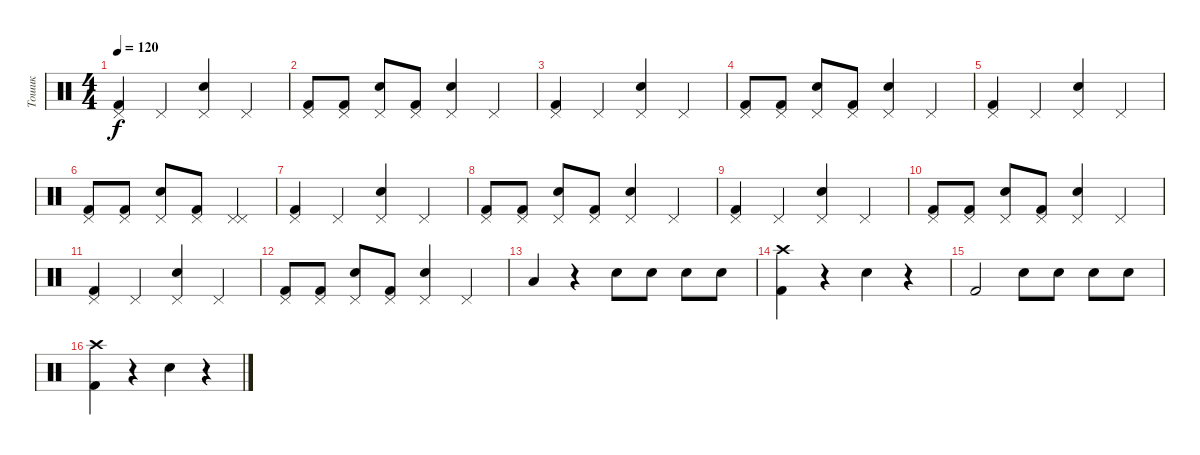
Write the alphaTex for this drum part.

\track ("Тошик" "Тошик") {instrument percussion}
\staff {score}
\articulation defaults
\ts (4 4)
\tempo 120
\clef neutral
\ks c
("Kick (hit) 2" "Pedal Hi-Hat (hit)").4{dy f} "Pedal Hi-Hat (hit)".4 ("Electric Snare (hit)" "Pedal Hi-Hat (hit)").4 "Pedal Hi-Hat (hit)".4 |
("Kick (hit) 2" "Pedal Hi-Hat (hit)").8 ("Kick (hit) 2" "Pedal Hi-Hat (hit)").8 ("Snare (hit) 2" "Pedal Hi-Hat (hit)").8 ("Kick (hit) 2" "Pedal Hi-Hat (hit)").8 ("Electric Snare (hit)" "Pedal Hi-Hat (hit)").4 "Pedal Hi-Hat (hit)".4 |
("Kick (hit) 2" "Pedal Hi-Hat (hit)").4 "Pedal Hi-Hat (hit)".4 ("Electric Snare (hit)" "Pedal Hi-Hat (hit)").4 "Pedal Hi-Hat (hit)".4 |
("Kick (hit) 2" "Pedal Hi-Hat (hit)").8 ("Kick (hit) 2" "Pedal Hi-Hat (hit)").8 ("Snare (hit) 2" "Pedal Hi-Hat (hit)").8 ("Kick (hit) 2" "Pedal Hi-Hat (hit)").8 ("Electric Snare (hit)" "Pedal Hi-Hat (hit)").4 "Pedal Hi-Hat (hit)".4 |
("Kick (hit) 2" "Pedal Hi-Hat (hit)").4 "Pedal Hi-Hat (hit)".4 ("Electric Snare (hit)" "Pedal Hi-Hat (hit)").4 "Pedal Hi-Hat (hit)".4 |
("Kick (hit) 2" "Pedal Hi-Hat (hit)").8 ("Kick (hit) 2" "Pedal Hi-Hat (hit)").8 ("Snare (hit) 2" "Pedal Hi-Hat (hit)").8 ("Kick (hit) 2" "Pedal Hi-Hat (hit)").8 ("Pedal Hi-Hat (hit)" "Pedal Hi-Hat (hit)").4 |
("Kick (hit) 2" "Pedal Hi-Hat (hit)").4 "Pedal Hi-Hat (hit)".4 ("Electric Snare (hit)" "Pedal Hi-Hat (hit)").4 "Pedal Hi-Hat (hit)".4 |
("Kick (hit) 2" "Pedal Hi-Hat (hit)").8 ("Kick (hit) 2" "Pedal Hi-Hat (hit)").8 ("Snare (hit) 2" "Pedal Hi-Hat (hit)").8 ("Kick (hit) 2" "Pedal Hi-Hat (hit)").8 ("Electric Snare (hit)" "Pedal Hi-Hat (hit)").4 "Pedal Hi-Hat (hit)".4 |
("Kick (hit) 2" "Pedal Hi-Hat (hit)").4 "Pedal Hi-Hat (hit)".4 ("Electric Snare (hit)" "Pedal Hi-Hat (hit)").4 "Pedal Hi-Hat (hit)".4 |
("Kick (hit) 2" "Pedal Hi-Hat (hit)").8 ("Kick (hit) 2" "Pedal Hi-Hat (hit)").8 ("Snare (hit) 2" "Pedal Hi-Hat (hit)").8 ("Kick (hit) 2" "Pedal Hi-Hat (hit)").8 ("Electric Snare (hit)" "Pedal Hi-Hat (hit)").4 "Pedal Hi-Hat (hit)".4 |
("Kick (hit) 2" "Pedal Hi-Hat (hit)").4 "Pedal Hi-Hat (hit)".4 ("Electric Snare (hit)" "Pedal Hi-Hat (hit)").4 "Pedal Hi-Hat (hit)".4 |
("Kick (hit) 2" "Pedal Hi-Hat (hit)").8 ("Kick (hit) 2" "Pedal Hi-Hat (hit)").8 ("Snare (hit) 2" "Pedal Hi-Hat (hit)").8 ("Kick (hit) 2" "Pedal Hi-Hat (hit)").8 ("Electric Snare (hit)" "Pedal Hi-Hat (hit)").4 "Pedal Hi-Hat (hit)".4 |
"Low Tom (hit)".4 r.4 "Snare (hit) 2".8 "Snare (hit) 2".8 "Snare (hit) 2".8 "Snare (hit) 2".8 |
("Kick (hit) 2" "Crash high (hit)").4 r.4 "Snare (hit) 2".4 r.4 |
"Kick (hit) 2".2 "Snare (hit) 2".8 "Snare (hit) 2".8 "Snare (hit) 2".8 "Snare (hit) 2".8 |
("Kick (hit) 2" "Crash high (hit)").4 r.4 "Snare (hit) 2".4 r.4
